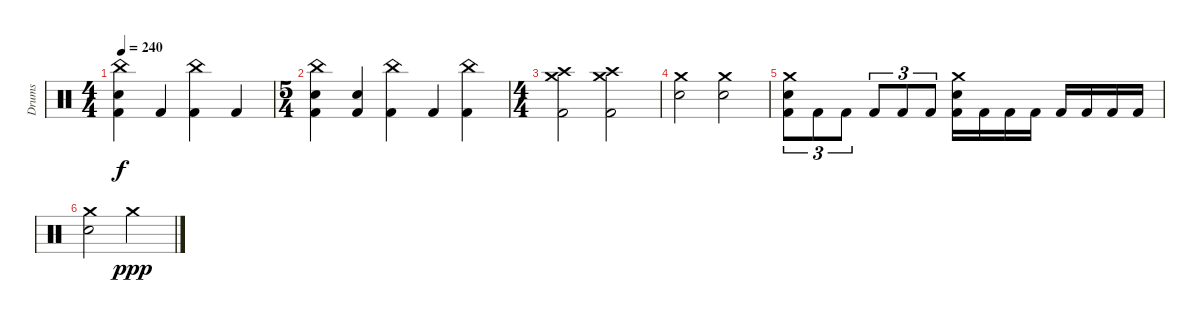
\track ("Drums" "Drums") {instrument percussion}
\staff {score}
\articulation defaults
\ts (4 4)
\tempo 240
\clef neutral
\ks c
("China (hit)" "Electric Snare (hit)" "Kick (hit) 2").4{dy f} "Kick (hit) 2".4 ("China (hit)" "Kick (hit) 2").4 "Kick (hit) 2".4 |
\ts (5 4)
("China (hit)" "Electric Snare (hit)" "Kick (hit) 2").4 ("Electric Snare (hit)" "Kick (hit) 2").4 ("China (hit)" "Kick (hit) 2").4 "Kick (hit) 2".4 ("China (hit)" "Kick (hit) 2").4 |
\ts (4 4)
("Crash medium (hit)" "Crash high (hit)" "Kick (hit) 2").2 ("Crash medium (hit)" "Crash high (hit)" "Kick (hit) 2").2 |
("Crash medium (hit)" "Electric Snare (hit)").2 ("Crash medium (hit)" "Electric Snare (hit)").2 |
("Crash medium (hit)" "Electric Snare (hit)" "Kick (hit) 2").8{tu (3 2)} "Kick (hit) 2".8{tu (3 2)} "Kick (hit) 2".8{tu (3 2)} "Kick (hit) 2".8{tu (3 2)} "Kick (hit) 2".8{tu (3 2)} "Kick (hit) 2".8{tu (3 2)} ("Crash medium (hit)" "Electric Snare (hit)" "Kick (hit) 2").16 "Kick (hit) 2".16 "Kick (hit) 2".16 "Kick (hit) 2".16 "Kick (hit) 2".16 "Kick (hit) 2".16 "Kick (hit) 2".16 "Kick (hit) 2".16 |
("Crash medium (hit)" "Electric Snare (hit)").2 "Crash medium (hit)".2{dy ppp}
